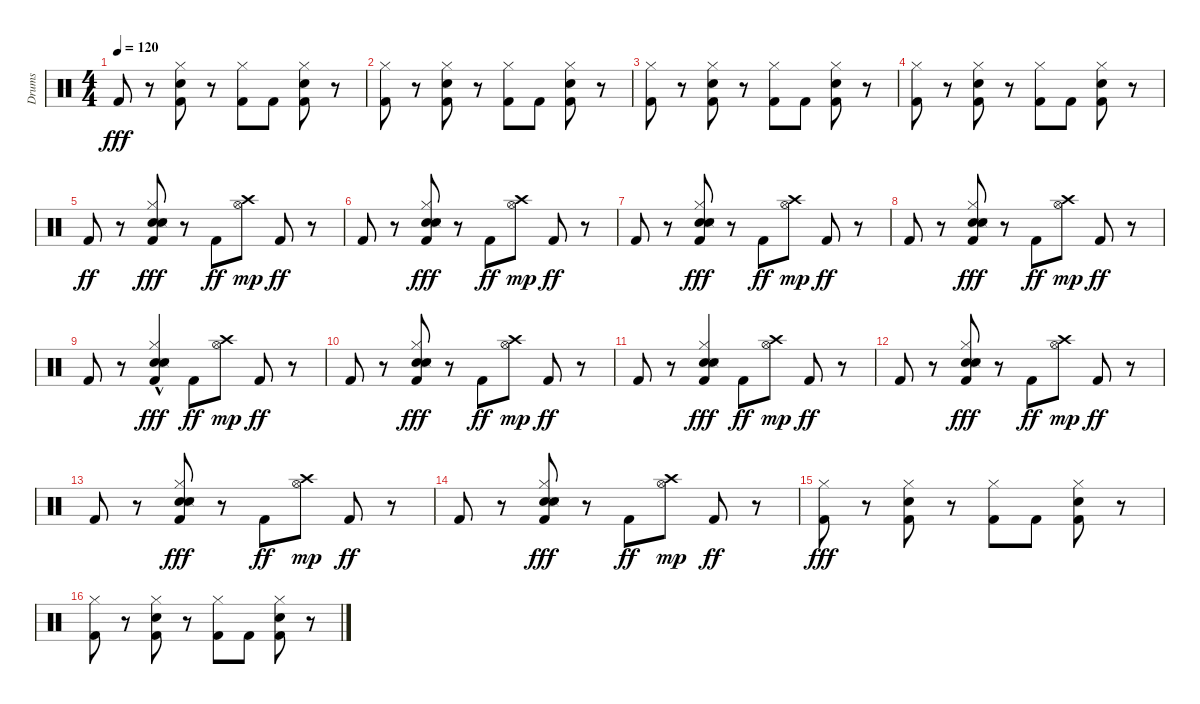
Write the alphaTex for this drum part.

\track ("Drums" "Drums") {instrument percussion}
\staff {score}
\articulation defaults
\ts (4 4)
\tempo 120
\clef neutral
\ks c "Kick (hit) 2".8{dy fff}
r.8 ("Kick (hit) 2" "Electric Snare (hit)" "Hi-Hat (closed)").8 r.8 ("Kick (hit) 2" "Hi-Hat (closed)").8 "Kick (hit) 2".8 ("Kick (hit) 2" "Electric Snare (hit)" "Hi-Hat (closed)").8 r.8 |
("Kick (hit) 2" "Hi-Hat (closed)").8 r.8 ("Kick (hit) 2" "Electric Snare (hit)" "Hi-Hat (closed)").8 r.8 ("Kick (hit) 2" "Hi-Hat (closed)").8 "Kick (hit) 2".8 ("Kick (hit) 2" "Electric Snare (hit)" "Hi-Hat (closed)").8 r.8 |
("Kick (hit) 2" "Hi-Hat (closed)").8 r.8 ("Kick (hit) 2" "Electric Snare (hit)" "Hi-Hat (closed)").8 r.8 ("Kick (hit) 2" "Hi-Hat (closed)").8 "Kick (hit) 2".8 ("Kick (hit) 2" "Electric Snare (hit)" "Hi-Hat (closed)").8 r.8 |
("Kick (hit) 2" "Hi-Hat (closed)").8 r.8 ("Kick (hit) 2" "Electric Snare (hit)" "Hi-Hat (closed)").8 r.8 ("Kick (hit) 2" "Hi-Hat (closed)").8 "Kick (hit) 2".8 ("Kick (hit) 2" "Electric Snare (hit)" "Hi-Hat (closed)").8 r.8 |
"Kick (hit) 2".8{dy ff} r.8 ("Kick (hit) 2" "Electric Snare (hit)" "Hi-Hat (closed)" "Hand Clap (hit)" "Snare (side stick) 3").8{dy fff} r.8 "Kick (hit) 2".8{dy ff} ("Hi-Hat (open)" "Crash high (hit)").8{dy mp} "Kick (hit) 2".8{dy ff} r.8 |
"Kick (hit) 2".8 r.8 ("Kick (hit) 2" "Electric Snare (hit)" "Hi-Hat (closed)" "Hand Clap (hit)" "Snare (side stick) 3").8{dy fff} r.8 "Kick (hit) 2".8{dy ff} ("Hi-Hat (open)" "Crash high (hit)").8{dy mp} "Kick (hit) 2".8{dy ff} r.8 |
"Kick (hit) 2".8 r.8 ("Kick (hit) 2" "Electric Snare (hit)" "Hi-Hat (closed)" "Hand Clap (hit)" "Snare (side stick) 3").8{dy fff} r.8 "Kick (hit) 2".8{dy ff} ("Hi-Hat (open)" "Crash high (hit)").8{dy mp} "Kick (hit) 2".8{dy ff} r.8 |
"Kick (hit) 2".8 r.8 ("Kick (hit) 2" "Electric Snare (hit)" "Hi-Hat (closed)" "Hand Clap (hit)" "Snare (side stick) 3").8{dy fff} r.8 "Kick (hit) 2".8{dy ff} ("Hi-Hat (open)" "Crash high (hit)").8{dy mp} "Kick (hit) 2".8{dy ff} r.8 |
"Kick (hit) 2".8 r.8 ("Kick (hit) 2" "Electric Snare (hit)" "Hi-Hat (closed)" "Hand Clap (hit)"{hac} "Snare (side stick) 3"{hac}).4{dy fff} "Kick (hit) 2".8{dy ff} ("Hi-Hat (open)" "Crash high (hit)").8{dy mp} "Kick (hit) 2".8{dy ff} r.8 |
"Kick (hit) 2".8 r.8 ("Kick (hit) 2" "Electric Snare (hit)" "Hi-Hat (closed)" "Hand Clap (hit)" "Snare (side stick) 3").8{dy fff} r.8 "Kick (hit) 2".8{dy ff} ("Hi-Hat (open)" "Crash high (hit)").8{dy mp} "Kick (hit) 2".8{dy ff} r.8 |
"Kick (hit) 2".8 r.8 ("Kick (hit) 2" "Electric Snare (hit)" "Hi-Hat (closed)" "Hand Clap (hit)" "Snare (side stick) 3").4{dy fff} "Kick (hit) 2".8{dy ff} ("Hi-Hat (open)" "Crash high (hit)").8{dy mp} "Kick (hit) 2".8{dy ff} r.8 |
"Kick (hit) 2".8 r.8 ("Kick (hit) 2" "Electric Snare (hit)" "Hi-Hat (closed)" "Hand Clap (hit)" "Snare (side stick) 3").8{dy fff} r.8 "Kick (hit) 2".8{dy ff} ("Hi-Hat (open)" "Crash high (hit)").8{dy mp} "Kick (hit) 2".8{dy ff} r.8 |
"Kick (hit) 2".8 r.8 ("Kick (hit) 2" "Electric Snare (hit)" "Hi-Hat (closed)" "Hand Clap (hit)" "Snare (side stick) 3").8{dy fff} r.8 "Kick (hit) 2".8{dy ff} ("Hi-Hat (open)" "Crash high (hit)").8{dy mp} "Kick (hit) 2".8{dy ff} r.8 |
"Kick (hit) 2".8 r.8 ("Kick (hit) 2" "Electric Snare (hit)" "Hi-Hat (closed)" "Hand Clap (hit)" "Snare (side stick) 3").8{dy fff} r.8 "Kick (hit) 2".8{dy ff} ("Hi-Hat (open)" "Crash high (hit)").8{dy mp} "Kick (hit) 2".8{dy ff} r.8 |
("Kick (hit) 2" "Hi-Hat (closed)").8{dy fff} r.8 ("Kick (hit) 2" "Electric Snare (hit)" "Hi-Hat (closed)").8 r.8 ("Kick (hit) 2" "Hi-Hat (closed)").8 "Kick (hit) 2".8 ("Kick (hit) 2" "Electric Snare (hit)" "Hi-Hat (closed)").8 r.8 |
("Kick (hit) 2" "Hi-Hat (closed)").8 r.8 ("Kick (hit) 2" "Electric Snare (hit)" "Hi-Hat (closed)").8 r.8 ("Kick (hit) 2" "Hi-Hat (closed)").8 "Kick (hit) 2".8 ("Kick (hit) 2" "Electric Snare (hit)" "Hi-Hat (closed)").8 r.8
